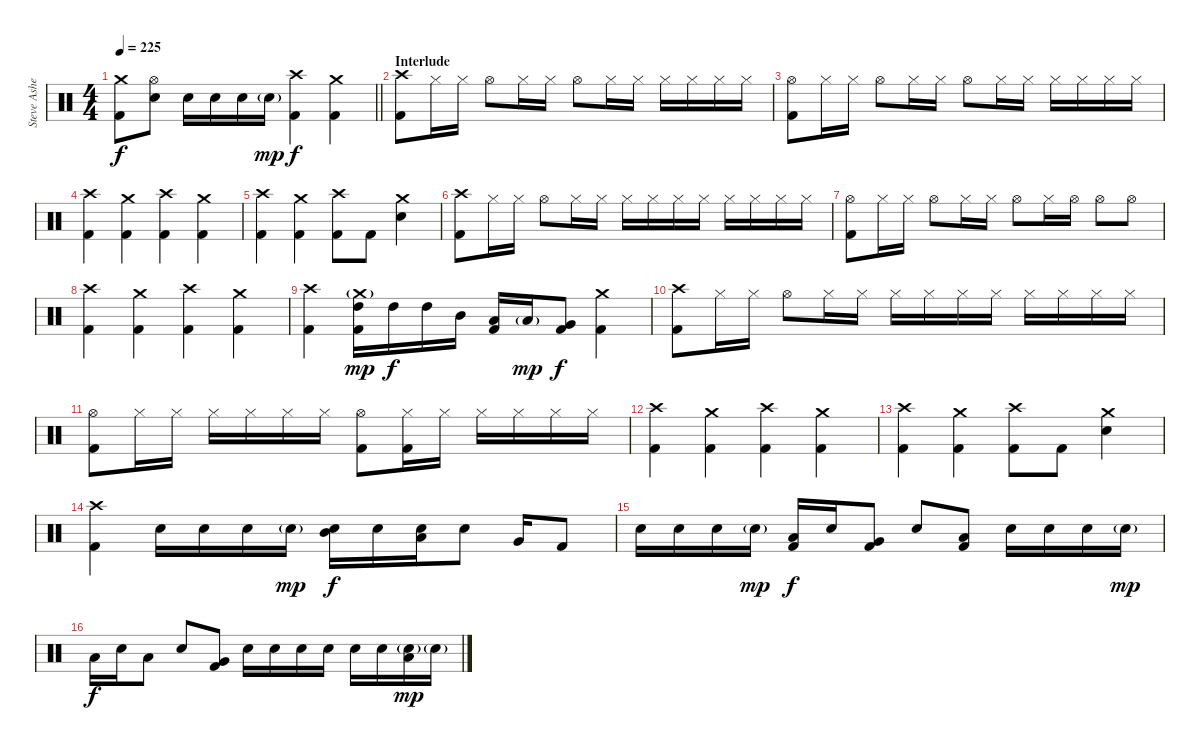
\track ("Steve Asheim" "Steve Ashe") {instrument percussion}
\staff {score}
\articulation defaults
\ts (4 4)
\tempo 225
\clef neutral
\barLineRight lightlight
\ks c
("Crash medium (hit)" "Kick (hit) 2").8{dy f} ("Hi-Hat (open)" "Electric Snare (hit)").8 "Electric Snare (hit)".16 "Electric Snare (hit)".16 "Electric Snare (hit)".16 "Electric Snare (hit)"{g}.16{dy mp} ("Crash high (hit)" "Kick (hit) 2").4{dy f} ("Crash medium (hit)" "Kick (hit) 2").4 |
\section ("" "Interlude")
("Crash high (hit)" "Kick (hit) 2").8 "Hi-Hat (closed)".16 "Hi-Hat (closed)".16 "Hi-Hat (open)".8 "Hi-Hat (closed)".16 "Hi-Hat (closed)".16 "Hi-Hat (open)".8 "Hi-Hat (closed)".16 "Hi-Hat (closed)".16 "Hi-Hat (closed)".16 "Hi-Hat (closed)".16 "Hi-Hat (closed)".16 "Hi-Hat (closed)".16 |
("Hi-Hat (open)" "Kick (hit) 2").8 "Hi-Hat (closed)".16 "Hi-Hat (closed)".16 "Hi-Hat (open)".8 "Hi-Hat (closed)".16 "Hi-Hat (closed)".16 "Hi-Hat (open)".8 "Hi-Hat (closed)".16 "Hi-Hat (closed)".16 "Hi-Hat (closed)".16 "Hi-Hat (closed)".16 "Hi-Hat (closed)".16 "Hi-Hat (closed)".16 |
("Crash high (hit)" "Kick (hit) 2").4 ("Crash medium (hit)" "Kick (hit) 2").4 ("Crash high (hit)" "Kick (hit) 2").4 ("Crash medium (hit)" "Kick (hit) 2").4 |
("Crash high (hit)" "Kick (hit) 2").4 ("Crash medium (hit)" "Kick (hit) 2").4 ("Crash high (hit)" "Kick (hit) 2").8 "Kick (hit) 2".8 ("Crash medium (hit)" "Electric Snare (hit)").4 |
("Crash high (hit)" "Kick (hit) 2").8 "Hi-Hat (closed)".16 "Hi-Hat (closed)".16 "Hi-Hat (open)".8 "Hi-Hat (closed)".16 "Hi-Hat (closed)".16 "Hi-Hat (closed)".16 "Hi-Hat (closed)".16 "Hi-Hat (closed)".16 "Hi-Hat (closed)".16 "Hi-Hat (closed)".16 "Hi-Hat (closed)".16 "Hi-Hat (closed)".16 "Hi-Hat (closed)".16 |
("Hi-Hat (open)" "Kick (hit) 2").8 "Hi-Hat (closed)".16 "Hi-Hat (closed)".16 "Hi-Hat (open)".8 "Hi-Hat (closed)".16 "Hi-Hat (closed)".16 "Hi-Hat (open)".8 "Hi-Hat (closed)".16 "Hi-Hat (open)".16 "Hi-Hat (open)".8 "Hi-Hat (open)".8 |
("Crash high (hit)" "Kick (hit) 2").4 ("Crash medium (hit)" "Kick (hit) 2").4 ("Crash high (hit)" "Kick (hit) 2").4 ("Crash medium (hit)" "Kick (hit) 2").4 |
("Crash high (hit)" "Kick (hit) 2").4 ("Crash medium (hit)"{g} "High Tom (hit)" "Kick (hit) 2").16{dy mp} "High Tom (hit)".16{dy f} "High Tom (hit)".16 "Mid Tom (hit)".16 ("Low Tom (hit)" "Kick (hit) 2").16 "Low Tom (hit)"{g}.16{dy mp} ("Very Low Tom (hit)" "Kick (hit) 2").8{dy f} ("Crash medium (hit)" "Kick (hit) 2").4 |
("Crash high (hit)" "Kick (hit) 2").8 "Hi-Hat (closed)".16 "Hi-Hat (closed)".16 "Hi-Hat (open)".8 "Hi-Hat (closed)".16 "Hi-Hat (closed)".16 "Hi-Hat (closed)".16 "Hi-Hat (closed)".16 "Hi-Hat (closed)".16 "Hi-Hat (closed)".16 "Hi-Hat (closed)".16 "Hi-Hat (closed)".16 "Hi-Hat (closed)".16 "Hi-Hat (closed)".16 |
("Hi-Hat (open)" "Kick (hit) 2").8 "Hi-Hat (closed)".16 "Hi-Hat (closed)".16 "Hi-Hat (closed)".16 "Hi-Hat (closed)".16 "Hi-Hat (closed)".16 "Hi-Hat (closed)".16 ("Hi-Hat (open)" "Kick (hit) 2").8 ("Hi-Hat (closed)" "Kick (hit) 2").16 "Hi-Hat (closed)".16 "Hi-Hat (closed)".16 "Hi-Hat (closed)".16 "Hi-Hat (closed)".16 "Hi-Hat (closed)".16 |
("Crash high (hit)" "Kick (hit) 2").4 ("Crash medium (hit)" "Kick (hit) 2").4 ("Crash high (hit)" "Kick (hit) 2").4 ("Crash medium (hit)" "Kick (hit) 2").4 |
("Crash high (hit)" "Kick (hit) 2").4 ("Crash medium (hit)" "Kick (hit) 2").4 ("Crash high (hit)" "Kick (hit) 2").8 "Kick (hit) 2".8 ("Crash medium (hit)" "Electric Snare (hit)").4 |
("Crash high (hit)" "Kick (hit) 2").4 "Electric Snare (hit)".16 "Electric Snare (hit)".16 "Electric Snare (hit)".16 "Electric Snare (hit)"{g}.16{dy mp} ("Mid Tom (hit)" "Electric Snare (hit)").16{dy f} "Electric Snare (hit)".16 ("Low Tom (hit)" "Electric Snare (hit)").16 "Electric Snare (hit)".8 "Very Low Tom (hit)".16 "Kick (hit) 2".8 |
"Electric Snare (hit)".16 "Electric Snare (hit)".16 "Electric Snare (hit)".16 "Electric Snare (hit)"{g}.16{dy mp} ("Low Tom (hit)" "Kick (hit) 2").16{dy f} "Electric Snare (hit)".16 ("Very Low Tom (hit)" "Kick (hit) 2").8 "Electric Snare (hit)".8 ("Low Floor Tom (hit)" "Kick (hit) 2").8 "Electric Snare (hit)".16 "Electric Snare (hit)".16 "Electric Snare (hit)".16 "Electric Snare (hit)"{g}.16{dy mp} |
"Low Tom (hit)".16{dy f} "Electric Snare (hit)".16 "Low Tom (hit)".8 "Electric Snare (hit)".8 ("Very Low Tom (hit)" "Kick (hit) 2").8 "Electric Snare (hit)".16 "Electric Snare (hit)".16 "Electric Snare (hit)".16 "Electric Snare (hit)".16 "Electric Snare (hit)".16 "Electric Snare (hit)".16 ("Low Tom (hit)" "Electric Snare (hit)"{g}).16{dy mp} "Electric Snare (hit)"{g}.16
